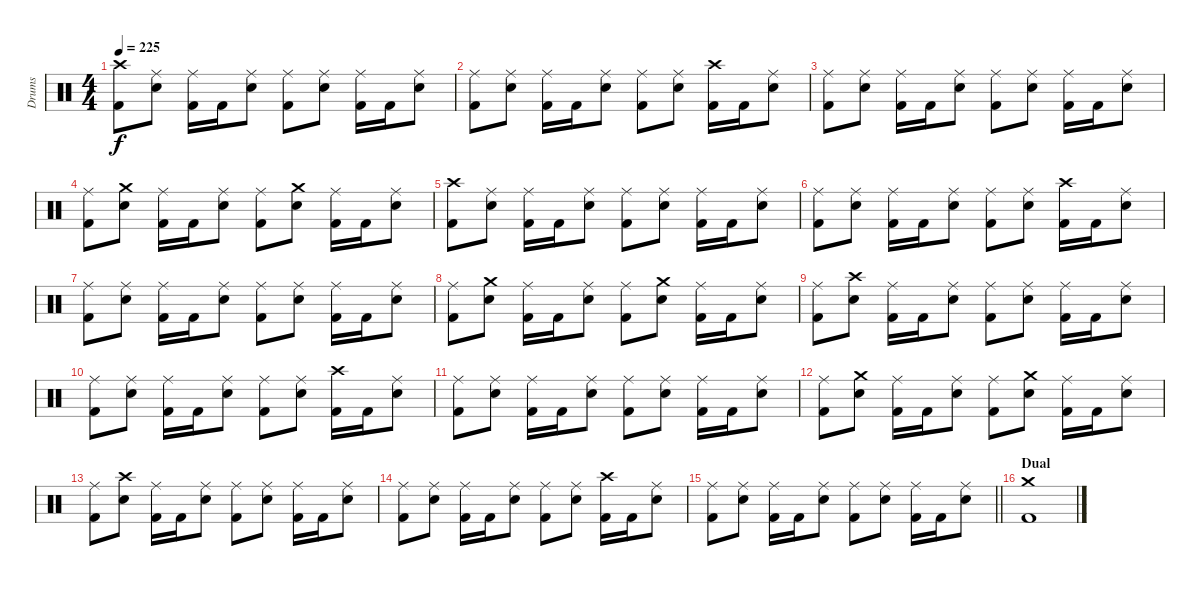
\track ("Drums" "Drums") {instrument percussion}
\staff {score}
\articulation defaults
\ts (4 4)
\section ("" "")
\tempo 225
\clef neutral
\ks c
("Crash high (hit)" "Kick (hit) 2").8{dy f} ("Ride (middle)" "Snare (hit) 2").8 ("Ride (middle)" "Kick (hit) 2").16 "Kick (hit) 2".16 ("Ride (middle)" "Snare (hit) 2").8 ("Ride (middle)" "Kick (hit) 2").8 ("Ride (middle)" "Snare (hit) 2").8 ("Ride (middle)" "Kick (hit) 2").16 "Kick (hit) 2".16 ("Ride (middle)" "Snare (hit) 2").8 |
("Ride (middle)" "Kick (hit) 2").8 ("Ride (middle)" "Snare (hit) 2").8 ("Ride (middle)" "Kick (hit) 2").16 "Kick (hit) 2".16 ("Ride (middle)" "Snare (hit) 2").8 ("Ride (middle)" "Kick (hit) 2").8 ("Ride (middle)" "Snare (hit) 2").8 ("Crash high (hit)" "Kick (hit) 2").16 "Kick (hit) 2".16 ("Ride (middle)" "Snare (hit) 2").8 |
("Ride (middle)" "Kick (hit) 2").8 ("Ride (middle)" "Snare (hit) 2").8 ("Ride (middle)" "Kick (hit) 2").16 "Kick (hit) 2".16 ("Ride (middle)" "Snare (hit) 2").8 ("Ride (middle)" "Kick (hit) 2").8 ("Ride (middle)" "Snare (hit) 2").8 ("Ride (middle)" "Kick (hit) 2").16 "Kick (hit) 2".16 ("Ride (middle)" "Snare (hit) 2").8 |
("Ride (middle)" "Kick (hit) 2").8 ("Crash medium (hit)" "Snare (hit) 2").8 ("Ride (middle)" "Kick (hit) 2").16 "Kick (hit) 2".16 ("Ride (middle)" "Snare (hit) 2").8 ("Ride (middle)" "Kick (hit) 2").8 ("Crash medium (hit)" "Snare (hit) 2").8 ("Ride (middle)" "Kick (hit) 2").16 "Kick (hit) 2".16 ("Ride (middle)" "Snare (hit) 2").8 |
("Crash high (hit)" "Kick (hit) 2").8 ("Ride (middle)" "Snare (hit) 2").8 ("Ride (middle)" "Kick (hit) 2").16 "Kick (hit) 2".16 ("Ride (middle)" "Snare (hit) 2").8 ("Ride (middle)" "Kick (hit) 2").8 ("Ride (middle)" "Snare (hit) 2").8 ("Ride (middle)" "Kick (hit) 2").16 "Kick (hit) 2".16 ("Ride (middle)" "Snare (hit) 2").8 |
("Ride (middle)" "Kick (hit) 2").8 ("Ride (middle)" "Snare (hit) 2").8 ("Ride (middle)" "Kick (hit) 2").16 "Kick (hit) 2".16 ("Ride (middle)" "Snare (hit) 2").8 ("Ride (middle)" "Kick (hit) 2").8 ("Ride (middle)" "Snare (hit) 2").8 ("Crash high (hit)" "Kick (hit) 2").16 "Kick (hit) 2".16 ("Ride (middle)" "Snare (hit) 2").8 |
("Ride (middle)" "Kick (hit) 2").8 ("Ride (middle)" "Snare (hit) 2").8 ("Ride (middle)" "Kick (hit) 2").16 "Kick (hit) 2".16 ("Ride (middle)" "Snare (hit) 2").8 ("Ride (middle)" "Kick (hit) 2").8 ("Ride (middle)" "Snare (hit) 2").8 ("Ride (middle)" "Kick (hit) 2").16 "Kick (hit) 2".16 ("Ride (middle)" "Snare (hit) 2").8 |
("Ride (middle)" "Kick (hit) 2").8 ("Crash medium (hit)" "Snare (hit) 2").8 ("Ride (middle)" "Kick (hit) 2").16 "Kick (hit) 2".16 ("Ride (middle)" "Snare (hit) 2").8 ("Ride (middle)" "Kick (hit) 2").8 ("Crash medium (hit)" "Snare (hit) 2").8 ("Ride (middle)" "Kick (hit) 2").16 "Kick (hit) 2".16 ("Ride (middle)" "Snare (hit) 2").8 |
("Ride (middle)" "Kick (hit) 2").8 ("Crash high (hit)" "Snare (hit) 2").8 ("Ride (middle)" "Kick (hit) 2").16 "Kick (hit) 2".16 ("Ride (middle)" "Snare (hit) 2").8 ("Ride (middle)" "Kick (hit) 2").8 ("Ride (middle)" "Snare (hit) 2").8 ("Ride (middle)" "Kick (hit) 2").16 "Kick (hit) 2".16 ("Ride (middle)" "Snare (hit) 2").8 |
("Ride (middle)" "Kick (hit) 2").8 ("Ride (middle)" "Snare (hit) 2").8 ("Ride (middle)" "Kick (hit) 2").16 "Kick (hit) 2".16 ("Ride (middle)" "Snare (hit) 2").8 ("Ride (middle)" "Kick (hit) 2").8 ("Ride (middle)" "Snare (hit) 2").8 ("Crash high (hit)" "Kick (hit) 2").16 "Kick (hit) 2".16 ("Ride (middle)" "Snare (hit) 2").8 |
("Ride (middle)" "Kick (hit) 2").8 ("Ride (middle)" "Snare (hit) 2").8 ("Ride (middle)" "Kick (hit) 2").16 "Kick (hit) 2".16 ("Ride (middle)" "Snare (hit) 2").8 ("Ride (middle)" "Kick (hit) 2").8 ("Ride (middle)" "Snare (hit) 2").8 ("Ride (middle)" "Kick (hit) 2").16 "Kick (hit) 2".16 ("Ride (middle)" "Snare (hit) 2").8 |
("Ride (middle)" "Kick (hit) 2").8 ("Crash medium (hit)" "Snare (hit) 2").8 ("Ride (middle)" "Kick (hit) 2").16 "Kick (hit) 2".16 ("Ride (middle)" "Snare (hit) 2").8 ("Ride (middle)" "Kick (hit) 2").8 ("Crash medium (hit)" "Snare (hit) 2").8 ("Ride (middle)" "Kick (hit) 2").16 "Kick (hit) 2".16 ("Ride (middle)" "Snare (hit) 2").8 |
("Ride (middle)" "Kick (hit) 2").8 ("Crash high (hit)" "Snare (hit) 2").8 ("Ride (middle)" "Kick (hit) 2").16 "Kick (hit) 2".16 ("Ride (middle)" "Snare (hit) 2").8 ("Ride (middle)" "Kick (hit) 2").8 ("Ride (middle)" "Snare (hit) 2").8 ("Ride (middle)" "Kick (hit) 2").16 "Kick (hit) 2".16 ("Ride (middle)" "Snare (hit) 2").8 |
("Ride (middle)" "Kick (hit) 2").8 ("Ride (middle)" "Snare (hit) 2").8 ("Ride (middle)" "Kick (hit) 2").16 "Kick (hit) 2".16 ("Ride (middle)" "Snare (hit) 2").8 ("Ride (middle)" "Kick (hit) 2").8 ("Ride (middle)" "Snare (hit) 2").8 ("Crash high (hit)" "Kick (hit) 2").16 "Kick (hit) 2".16 ("Ride (middle)" "Snare (hit) 2").8 |
\barLineRight lightlight
("Ride (middle)" "Kick (hit) 2").8 ("Ride (middle)" "Snare (hit) 2").8 ("Ride (middle)" "Kick (hit) 2").16 "Kick (hit) 2".16 ("Ride (middle)" "Snare (hit) 2").8 ("Ride (middle)" "Kick (hit) 2").8 ("Ride (middle)" "Snare (hit) 2").8 ("Ride (middle)" "Kick (hit) 2").16 "Kick (hit) 2".16 ("Ride (middle)" "Snare (hit) 2").8 |
\section ("" "Dual")
("Crash medium (hit)" "Kick (hit) 2").1
